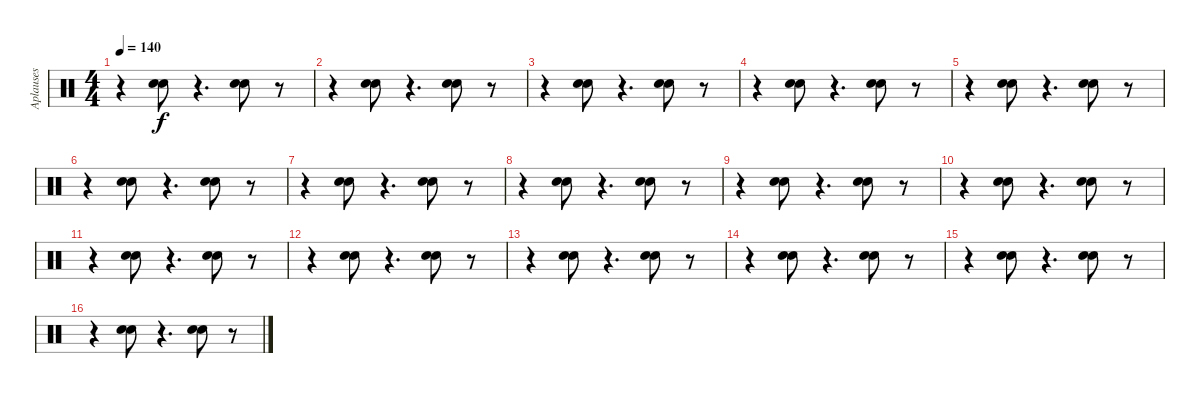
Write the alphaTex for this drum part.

\track ("Aplauses" "Aplauses") {instrument percussion}
\staff {score}
\articulation defaults
\ts (4 4)
\tempo 140
\clef neutral
\ks c
r.4{dy f} ("Hand Clap (hit)" "Hand Clap (hit)").8 r.4{d} ("Hand Clap (hit)" "Hand Clap (hit)").8 r.8 |
r.4 ("Hand Clap (hit)" "Hand Clap (hit)").8 r.4{d} ("Hand Clap (hit)" "Hand Clap (hit)").8 r.8 |
r.4 ("Hand Clap (hit)" "Hand Clap (hit)").8 r.4{d} ("Hand Clap (hit)" "Hand Clap (hit)").8 r.8 |
r.4 ("Hand Clap (hit)" "Hand Clap (hit)").8 r.4{d} ("Hand Clap (hit)" "Hand Clap (hit)").8 r.8 |
r.4 ("Hand Clap (hit)" "Hand Clap (hit)").8 r.4{d} ("Hand Clap (hit)" "Hand Clap (hit)").8 r.8 |
r.4 ("Hand Clap (hit)" "Hand Clap (hit)").8 r.4{d} ("Hand Clap (hit)" "Hand Clap (hit)").8 r.8 |
r.4 ("Hand Clap (hit)" "Hand Clap (hit)").8 r.4{d} ("Hand Clap (hit)" "Hand Clap (hit)").8 r.8 |
r.4 ("Hand Clap (hit)" "Hand Clap (hit)").8 r.4{d} ("Hand Clap (hit)" "Hand Clap (hit)").8 r.8 |
r.4 ("Hand Clap (hit)" "Hand Clap (hit)").8 r.4{d} ("Hand Clap (hit)" "Hand Clap (hit)").8 r.8 |
r.4 ("Hand Clap (hit)" "Hand Clap (hit)").8 r.4{d} ("Hand Clap (hit)" "Hand Clap (hit)").8 r.8 |
r.4 ("Hand Clap (hit)" "Hand Clap (hit)").8 r.4{d} ("Hand Clap (hit)" "Hand Clap (hit)").8 r.8 |
r.4 ("Hand Clap (hit)" "Hand Clap (hit)").8 r.4{d} ("Hand Clap (hit)" "Hand Clap (hit)").8 r.8 |
r.4 ("Hand Clap (hit)" "Hand Clap (hit)").8 r.4{d} ("Hand Clap (hit)" "Hand Clap (hit)").8 r.8 |
r.4 ("Hand Clap (hit)" "Hand Clap (hit)").8 r.4{d} ("Hand Clap (hit)" "Hand Clap (hit)").8 r.8 |
r.4 ("Hand Clap (hit)" "Hand Clap (hit)").8 r.4{d} ("Hand Clap (hit)" "Hand Clap (hit)").8 r.8 |
r.4 ("Hand Clap (hit)" "Hand Clap (hit)").8 r.4{d} ("Hand Clap (hit)" "Hand Clap (hit)").8 r.8
